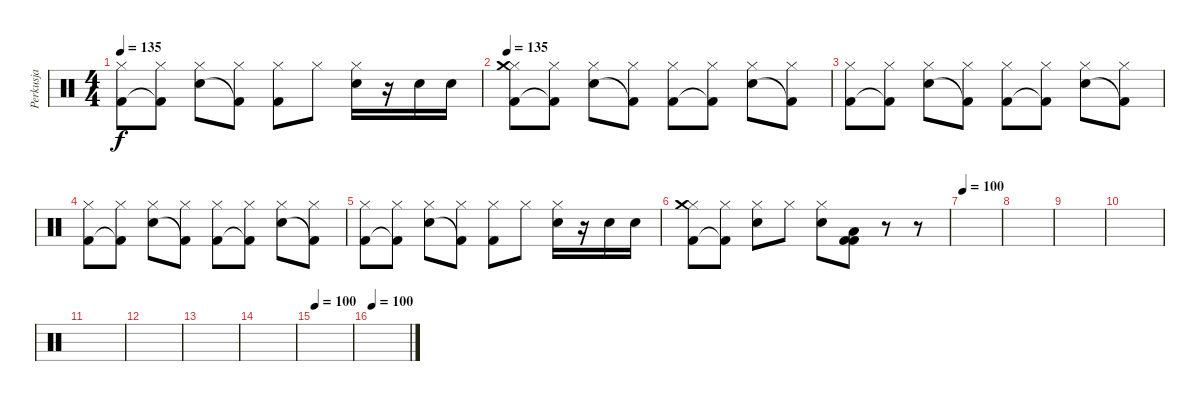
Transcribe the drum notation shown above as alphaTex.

\track ("Perkusja" "Perkusja") {instrument percussion}
\staff {score}
\articulation defaults
\ts (4 4)
\tempo 135
\clef neutral
\ks c
("Kick (hit) 2" "Hi-Hat (closed)").8{dy f} ("Kick (hit) 2"{t} "Hi-Hat (closed)").8 ("Snare (hit) 2" "Hi-Hat (closed)").8 ("Kick (hit) 2"{t} "Hi-Hat (closed)").8 ("Kick (hit) 2" "Hi-Hat (closed)").8 "Hi-Hat (closed)".8 ("Snare (hit) 2" "Hi-Hat (closed)").16 r.16 "Snare (hit) 2".16 "Snare (hit) 2".16 |
\tempo 135
("Kick (hit) 2" "Hi-Hat (closed)" "Crash medium (hit)").8 ("Kick (hit) 2"{t} "Hi-Hat (closed)").8 ("Snare (hit) 2" "Hi-Hat (closed)").8 ("Kick (hit) 2"{t} "Hi-Hat (closed)").8 ("Kick (hit) 2" "Hi-Hat (closed)").8 ("Kick (hit) 2"{t} "Hi-Hat (closed)").8 ("Snare (hit) 2" "Hi-Hat (closed)").8 ("Kick (hit) 2"{t} "Hi-Hat (closed)").8 |
("Kick (hit) 2" "Hi-Hat (closed)").8 ("Kick (hit) 2"{t} "Hi-Hat (closed)").8 ("Snare (hit) 2" "Hi-Hat (closed)").8 ("Kick (hit) 2"{t} "Hi-Hat (closed)").8 ("Kick (hit) 2" "Hi-Hat (closed)").8 ("Kick (hit) 2"{t} "Hi-Hat (closed)").8 ("Snare (hit) 2" "Hi-Hat (closed)").8 ("Kick (hit) 2"{t} "Hi-Hat (closed)").8 |
("Kick (hit) 2" "Hi-Hat (closed)").8 ("Kick (hit) 2"{t} "Hi-Hat (closed)").8 ("Snare (hit) 2" "Hi-Hat (closed)").8 ("Kick (hit) 2"{t} "Hi-Hat (closed)").8 ("Kick (hit) 2" "Hi-Hat (closed)").8 ("Kick (hit) 2"{t} "Hi-Hat (closed)").8 ("Snare (hit) 2" "Hi-Hat (closed)").8 ("Kick (hit) 2"{t} "Hi-Hat (closed)").8 |
("Kick (hit) 2" "Hi-Hat (closed)").8 ("Kick (hit) 2"{t} "Hi-Hat (closed)").8 ("Snare (hit) 2" "Hi-Hat (closed)").8 ("Kick (hit) 2"{t} "Hi-Hat (closed)").8 ("Kick (hit) 2" "Hi-Hat (closed)").8 "Hi-Hat (closed)".8 ("Snare (hit) 2" "Hi-Hat (closed)").16 r.16 "Snare (hit) 2".16 "Snare (hit) 2".16 |
("Kick (hit) 2" "Hi-Hat (closed)" "Crash medium (hit)").8 ("Kick (hit) 2"{t} "Hi-Hat (closed)").8 ("Snare (hit) 2" "Hi-Hat (closed)").8 "Hi-Hat (closed)".8 ("Snare (hit) 2" "Hi-Hat (closed)").8 ("Kick (hit) 2" "Kick (hit) 2" "Low Tom (hit)").8 r.8 r.8 |
\tempo 100
|
|
|
|
|
|
|
|
\tempo 100
|
\tempo 100
